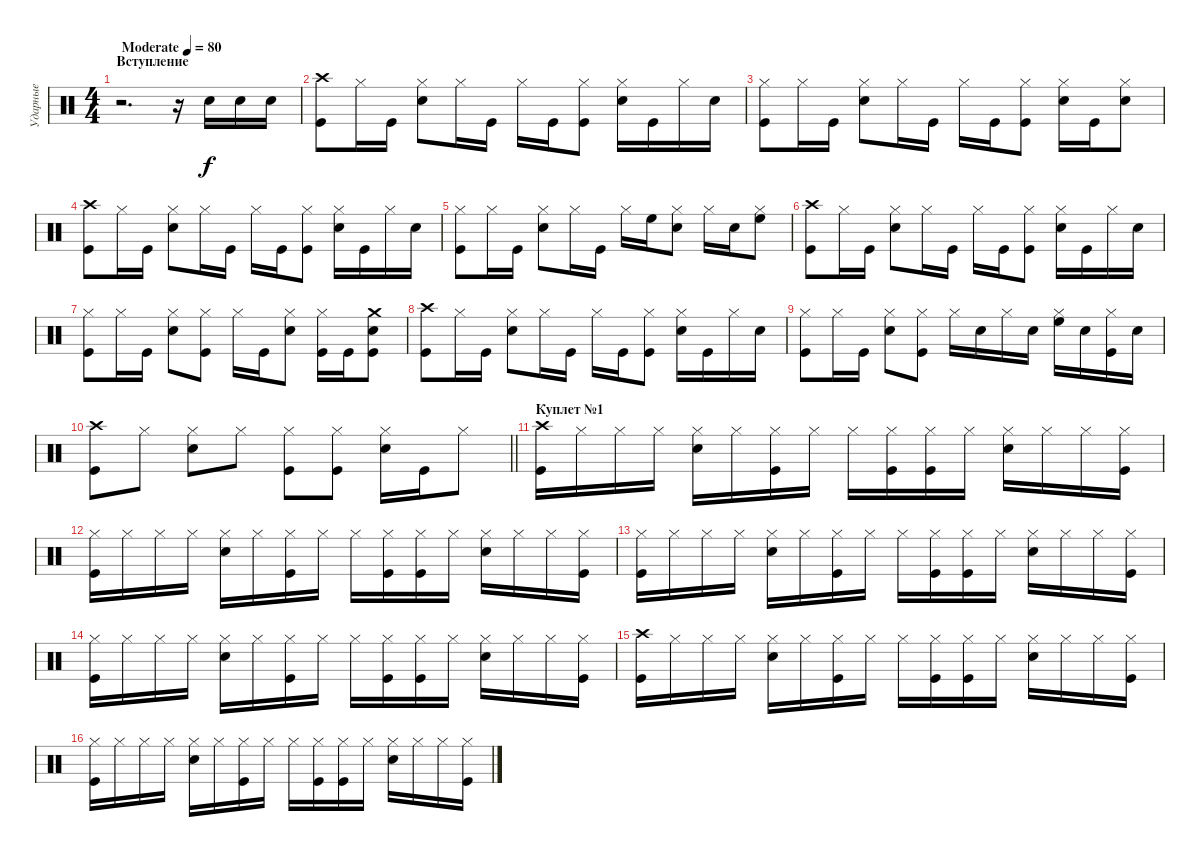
\track ("Ударные" "Ударные") {instrument percussion}
\staff {score}
\articulation defaults
\ts (4 4)
\section ("" "Вступление")
\tempo (80 "Moderate")
\clef neutral
\ks c
r.2{d dy f} r.16 "Snare (hit) 2".16 "Snare (hit) 2".16 "Snare (hit) 2".16 |
("Crash high (hit)" "Kick (hit)").8 "Hi-Hat (closed)".16 "Kick (hit)".16 ("Hi-Hat (closed)" "Snare (hit) 2").8 "Hi-Hat (closed)".16 "Kick (hit)".16 "Hi-Hat (closed)".16 "Kick (hit)".16 ("Hi-Hat (closed)" "Kick (hit)").8 ("Hi-Hat (closed)" "Snare (hit) 2").16 "Kick (hit)".16 "Hi-Hat (closed)".16 "Snare (hit) 2".16 |
("Hi-Hat (closed)" "Kick (hit)").8 "Hi-Hat (closed)".16 "Kick (hit)".16 ("Hi-Hat (closed)" "Snare (hit) 2").8 "Hi-Hat (closed)".16 "Kick (hit)".16 "Hi-Hat (closed)".16 "Kick (hit)".16 ("Hi-Hat (closed)" "Kick (hit)").8 ("Hi-Hat (closed)" "Snare (hit) 2").16 "Kick (hit)".16 ("Hi-Hat (closed)" "Snare (hit) 2").8 |
("Crash high (hit)" "Kick (hit)").8 "Hi-Hat (closed)".16 "Kick (hit)".16 ("Hi-Hat (closed)" "Snare (hit) 2").8 "Hi-Hat (closed)".16 "Kick (hit)".16 "Hi-Hat (closed)".16 "Kick (hit)".16 ("Hi-Hat (closed)" "Kick (hit)").8 ("Hi-Hat (closed)" "Snare (hit) 2").16 "Kick (hit)".16 "Hi-Hat (closed)".16 "Snare (hit) 2".16 |
("Hi-Hat (closed)" "Kick (hit)").8 "Hi-Hat (closed)".16 "Kick (hit)".16 ("Hi-Hat (closed)" "Snare (hit) 2").8 "Hi-Hat (closed)".16 "Kick (hit)".16 "Hi-Hat (closed)".16 "High Floor Tom (hit)".16 ("Hi-Hat (closed)" "Snare (hit) 2").8 "Hi-Hat (closed)".16 "Snare (hit) 2".16 ("Hi-Hat (closed)" "High Floor Tom (hit)").8 |
("Crash high (hit)" "Kick (hit)").8 "Hi-Hat (closed)".16 "Kick (hit)".16 ("Hi-Hat (closed)" "Snare (hit) 2").8 "Hi-Hat (closed)".16 "Kick (hit)".16 "Hi-Hat (closed)".16 "Kick (hit)".16 ("Hi-Hat (closed)" "Kick (hit)").8 ("Hi-Hat (closed)" "Snare (hit) 2").16 "Kick (hit)".16 "Hi-Hat (closed)".16 "Snare (hit) 2".16 |
("Hi-Hat (closed)" "Kick (hit)").8 "Hi-Hat (closed)".16 "Kick (hit)".16 ("Hi-Hat (closed)" "Snare (hit) 2").8 ("Hi-Hat (closed)" "Kick (hit)").8 "Hi-Hat (closed)".16 "Kick (hit)".16 ("Hi-Hat (closed)" "Snare (hit) 2").8 ("Hi-Hat (closed)" "Kick (hit)").16 "Kick (hit)".16 ("Crash medium (hit)" "Snare (hit) 2" "Kick (hit)").8 |
("Crash high (hit)" "Kick (hit)").8 "Hi-Hat (closed)".16 "Kick (hit)".16 ("Hi-Hat (closed)" "Snare (hit) 2").8 "Hi-Hat (closed)".16 "Kick (hit)".16 "Hi-Hat (closed)".16 "Kick (hit)".16 ("Hi-Hat (closed)" "Kick (hit)").8 ("Hi-Hat (closed)" "Snare (hit) 2").16 "Kick (hit)".16 "Hi-Hat (closed)".16 "Snare (hit) 2".16 |
("Hi-Hat (closed)" "Kick (hit)").8 "Hi-Hat (closed)".16 "Kick (hit)".16 ("Hi-Hat (closed)" "Snare (hit) 2").8 ("Hi-Hat (closed)" "Kick (hit)").8 "Hi-Hat (closed)".16 "Snare (hit) 2".16 "Hi-Hat (closed)".16 "Snare (hit) 2".16 ("Hi-Hat (closed)" "High Floor Tom (hit)").16 "Snare (hit) 2".16 ("Hi-Hat (closed)" "Kick (hit)").16 "Snare (hit) 2".16 |
\barLineRight lightlight
("Crash high (hit)" "Kick (hit)").8 "Hi-Hat (closed)".8 ("Hi-Hat (closed)" "Snare (hit) 2").8 "Hi-Hat (closed)".8 ("Hi-Hat (closed)" "Kick (hit)").8 ("Hi-Hat (closed)" "Kick (hit)").8 ("Hi-Hat (closed)" "Snare (hit) 2").16 "Kick (hit)".16 "Hi-Hat (closed)".8 |
\section ("" "Куплет №1")
("Crash high (hit)" "Kick (hit)").16 "Hi-Hat (closed)".16 "Hi-Hat (closed)".16 "Hi-Hat (closed)".16 ("Hi-Hat (closed)" "Snare (hit) 2").16 "Hi-Hat (closed)".16 ("Hi-Hat (closed)" "Kick (hit)").16 "Hi-Hat (closed)".16 "Hi-Hat (closed)".16 ("Hi-Hat (closed)" "Kick (hit)").16 ("Hi-Hat (closed)" "Kick (hit)").16 "Hi-Hat (closed)".16 ("Hi-Hat (closed)" "Snare (hit) 2").16 "Hi-Hat (closed)".16 "Hi-Hat (closed)".16 ("Hi-Hat (closed)" "Kick (hit)").16 |
("Hi-Hat (closed)" "Kick (hit)").16 "Hi-Hat (closed)".16 "Hi-Hat (closed)".16 "Hi-Hat (closed)".16 ("Hi-Hat (closed)" "Snare (hit) 2").16 "Hi-Hat (closed)".16 ("Hi-Hat (closed)" "Kick (hit)").16 "Hi-Hat (closed)".16 "Hi-Hat (closed)".16 ("Hi-Hat (closed)" "Kick (hit)").16 ("Hi-Hat (closed)" "Kick (hit)").16 "Hi-Hat (closed)".16 ("Hi-Hat (closed)" "Snare (hit) 2").16 "Hi-Hat (closed)".16 "Hi-Hat (closed)".16 ("Hi-Hat (closed)" "Kick (hit)").16 |
("Hi-Hat (closed)" "Kick (hit)").16 "Hi-Hat (closed)".16 "Hi-Hat (closed)".16 "Hi-Hat (closed)".16 ("Hi-Hat (closed)" "Snare (hit) 2").16 "Hi-Hat (closed)".16 ("Hi-Hat (closed)" "Kick (hit)").16 "Hi-Hat (closed)".16 "Hi-Hat (closed)".16 ("Hi-Hat (closed)" "Kick (hit)").16 ("Hi-Hat (closed)" "Kick (hit)").16 "Hi-Hat (closed)".16 ("Hi-Hat (closed)" "Snare (hit) 2").16 "Hi-Hat (closed)".16 "Hi-Hat (closed)".16 ("Hi-Hat (closed)" "Kick (hit)").16 |
("Hi-Hat (closed)" "Kick (hit)").16 "Hi-Hat (closed)".16 "Hi-Hat (closed)".16 "Hi-Hat (closed)".16 ("Hi-Hat (closed)" "Snare (hit) 2").16 "Hi-Hat (closed)".16 ("Hi-Hat (closed)" "Kick (hit)").16 "Hi-Hat (closed)".16 "Hi-Hat (closed)".16 ("Hi-Hat (closed)" "Kick (hit)").16 ("Hi-Hat (closed)" "Kick (hit)").16 "Hi-Hat (closed)".16 ("Hi-Hat (closed)" "Snare (hit) 2").16 "Hi-Hat (closed)".16 "Hi-Hat (closed)".16 ("Hi-Hat (closed)" "Kick (hit)").16 |
("Crash high (hit)" "Kick (hit)").16 "Hi-Hat (closed)".16 "Hi-Hat (closed)".16 "Hi-Hat (closed)".16 ("Hi-Hat (closed)" "Snare (hit) 2").16 "Hi-Hat (closed)".16 ("Hi-Hat (closed)" "Kick (hit)").16 "Hi-Hat (closed)".16 "Hi-Hat (closed)".16 ("Hi-Hat (closed)" "Kick (hit)").16 ("Hi-Hat (closed)" "Kick (hit)").16 "Hi-Hat (closed)".16 ("Hi-Hat (closed)" "Snare (hit) 2").16 "Hi-Hat (closed)".16 "Hi-Hat (closed)".16 ("Hi-Hat (closed)" "Kick (hit)").16 |
("Hi-Hat (closed)" "Kick (hit)").16 "Hi-Hat (closed)".16 "Hi-Hat (closed)".16 "Hi-Hat (closed)".16 ("Hi-Hat (closed)" "Snare (hit) 2").16 "Hi-Hat (closed)".16 ("Hi-Hat (closed)" "Kick (hit)").16 "Hi-Hat (closed)".16 "Hi-Hat (closed)".16 ("Hi-Hat (closed)" "Kick (hit)").16 ("Hi-Hat (closed)" "Kick (hit)").16 "Hi-Hat (closed)".16 ("Hi-Hat (closed)" "Snare (hit) 2").16 "Hi-Hat (closed)".16 "Hi-Hat (closed)".16 ("Hi-Hat (closed)" "Kick (hit)").16
